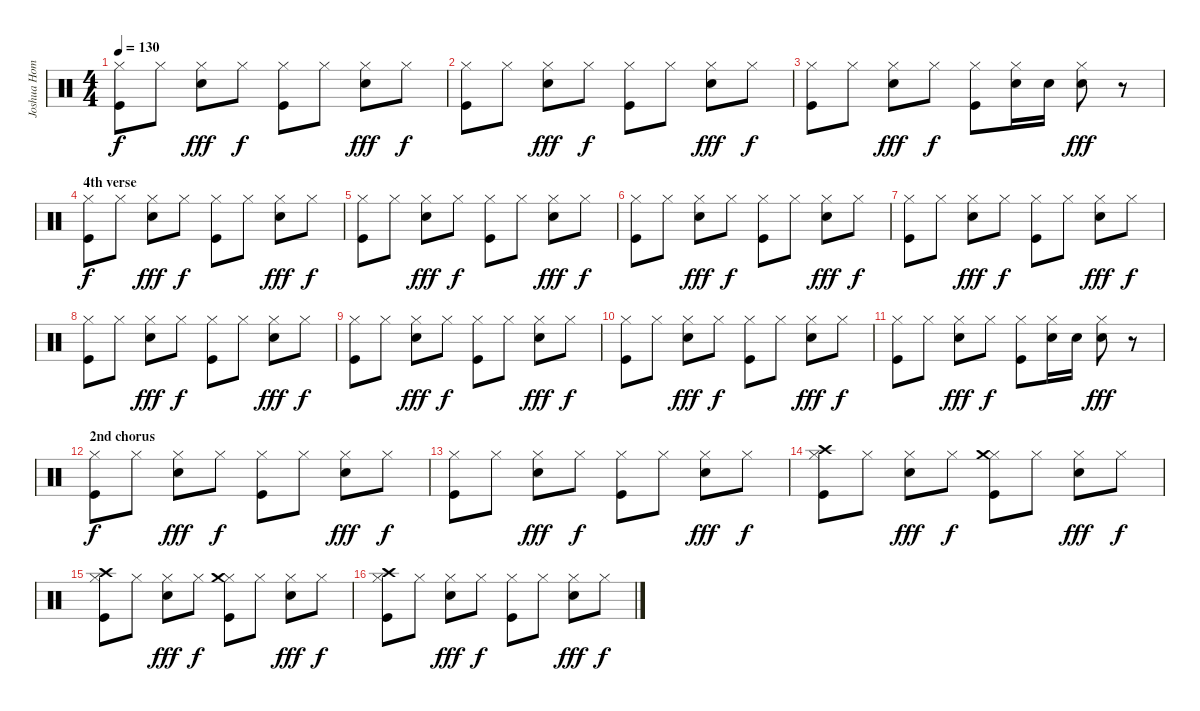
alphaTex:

\track ("Joshua Homme - drums" "Joshua Hom") {instrument percussion}
\staff {score}
\articulation defaults
\ts (4 4)
\tempo 130
\clef neutral
\ks c
("Hi-Hat (closed)" "Kick (hit)").8{dy f} "Hi-Hat (closed)".8 ("Hi-Hat (closed)" "Electric Snare (hit)").8{dy fff} "Hi-Hat (closed)".8{dy f} ("Hi-Hat (closed)" "Kick (hit)").8 "Hi-Hat (closed)".8 ("Hi-Hat (closed)" "Electric Snare (hit)").8{dy fff} "Hi-Hat (closed)".8{dy f} |
("Hi-Hat (closed)" "Kick (hit)").8 "Hi-Hat (closed)".8 ("Hi-Hat (closed)" "Electric Snare (hit)").8{dy fff} "Hi-Hat (closed)".8{dy f} ("Hi-Hat (closed)" "Kick (hit)").8 "Hi-Hat (closed)".8 ("Hi-Hat (closed)" "Electric Snare (hit)").8{dy fff} "Hi-Hat (closed)".8{dy f} |
("Hi-Hat (closed)" "Kick (hit)").8 "Hi-Hat (closed)".8 ("Hi-Hat (closed)" "Electric Snare (hit)").8{dy fff} "Hi-Hat (closed)".8{dy f} ("Hi-Hat (closed)" "Kick (hit)").8 ("Hi-Hat (closed)" "Electric Snare (hit)").16 "Electric Snare (hit)".16 ("Hi-Hat (closed)" "Electric Snare (hit)").8{dy fff} r.8 |
\section ("" "4th verse")
("Hi-Hat (closed)" "Kick (hit)").8{dy f} "Hi-Hat (closed)".8 ("Hi-Hat (closed)" "Electric Snare (hit)").8{dy fff} "Hi-Hat (closed)".8{dy f} ("Hi-Hat (closed)" "Kick (hit)").8 "Hi-Hat (closed)".8 ("Hi-Hat (closed)" "Electric Snare (hit)").8{dy fff} "Hi-Hat (closed)".8{dy f} |
("Hi-Hat (closed)" "Kick (hit)").8 "Hi-Hat (closed)".8 ("Hi-Hat (closed)" "Electric Snare (hit)").8{dy fff} "Hi-Hat (closed)".8{dy f} ("Hi-Hat (closed)" "Kick (hit)").8 "Hi-Hat (closed)".8 ("Hi-Hat (closed)" "Electric Snare (hit)").8{dy fff} "Hi-Hat (closed)".8{dy f} |
("Hi-Hat (closed)" "Kick (hit)").8 "Hi-Hat (closed)".8 ("Hi-Hat (closed)" "Electric Snare (hit)").8{dy fff} "Hi-Hat (closed)".8{dy f} ("Hi-Hat (closed)" "Kick (hit)").8 "Hi-Hat (closed)".8 ("Hi-Hat (closed)" "Electric Snare (hit)").8{dy fff} "Hi-Hat (closed)".8{dy f} |
("Hi-Hat (closed)" "Kick (hit)").8 "Hi-Hat (closed)".8 ("Hi-Hat (closed)" "Electric Snare (hit)").8{dy fff} "Hi-Hat (closed)".8{dy f} ("Hi-Hat (closed)" "Kick (hit)").8 "Hi-Hat (closed)".8 ("Hi-Hat (closed)" "Electric Snare (hit)").8{dy fff} "Hi-Hat (closed)".8{dy f} |
("Hi-Hat (closed)" "Kick (hit)").8 "Hi-Hat (closed)".8 ("Hi-Hat (closed)" "Electric Snare (hit)").8{dy fff} "Hi-Hat (closed)".8{dy f} ("Hi-Hat (closed)" "Kick (hit)").8 "Hi-Hat (closed)".8 ("Hi-Hat (closed)" "Electric Snare (hit)").8{dy fff} "Hi-Hat (closed)".8{dy f} |
("Hi-Hat (closed)" "Kick (hit)").8 "Hi-Hat (closed)".8 ("Hi-Hat (closed)" "Electric Snare (hit)").8{dy fff} "Hi-Hat (closed)".8{dy f} ("Hi-Hat (closed)" "Kick (hit)").8 "Hi-Hat (closed)".8 ("Hi-Hat (closed)" "Electric Snare (hit)").8{dy fff} "Hi-Hat (closed)".8{dy f} |
("Hi-Hat (closed)" "Kick (hit)").8 "Hi-Hat (closed)".8 ("Hi-Hat (closed)" "Electric Snare (hit)").8{dy fff} "Hi-Hat (closed)".8{dy f} ("Hi-Hat (closed)" "Kick (hit)").8 "Hi-Hat (closed)".8 ("Hi-Hat (closed)" "Electric Snare (hit)").8{dy fff} "Hi-Hat (closed)".8{dy f} |
("Hi-Hat (closed)" "Kick (hit)").8 "Hi-Hat (closed)".8 ("Hi-Hat (closed)" "Electric Snare (hit)").8{dy fff} "Hi-Hat (closed)".8{dy f} ("Hi-Hat (closed)" "Kick (hit)").8 ("Hi-Hat (closed)" "Electric Snare (hit)").16 "Electric Snare (hit)".16 ("Hi-Hat (closed)" "Electric Snare (hit)").8{dy fff} r.8 |
\section ("" "2nd chorus")
("Hi-Hat (closed)" "Kick (hit)").8{dy f} "Hi-Hat (closed)".8 ("Hi-Hat (closed)" "Electric Snare (hit)").8{dy fff} "Hi-Hat (closed)".8{dy f} ("Hi-Hat (closed)" "Kick (hit)").8 "Hi-Hat (closed)".8 ("Hi-Hat (closed)" "Electric Snare (hit)").8{dy fff} "Hi-Hat (closed)".8{dy f} |
("Hi-Hat (closed)" "Kick (hit)").8 "Hi-Hat (closed)".8 ("Hi-Hat (closed)" "Electric Snare (hit)").8{dy fff} "Hi-Hat (closed)".8{dy f} ("Hi-Hat (closed)" "Kick (hit)").8 "Hi-Hat (closed)".8 ("Hi-Hat (closed)" "Electric Snare (hit)").8{dy fff} "Hi-Hat (closed)".8{dy f} |
("Hi-Hat (closed)" "Kick (hit)" "Crash high (hit)").8 "Hi-Hat (closed)".8 ("Hi-Hat (closed)" "Electric Snare (hit)").8{dy fff} "Hi-Hat (closed)".8{dy f} ("Hi-Hat (closed)" "Kick (hit)" "Crash medium (hit)").8 "Hi-Hat (closed)".8 ("Hi-Hat (closed)" "Electric Snare (hit)").8{dy fff} "Hi-Hat (closed)".8{dy f} |
("Hi-Hat (closed)" "Kick (hit)" "Crash high (hit)").8 "Hi-Hat (closed)".8 ("Hi-Hat (closed)" "Electric Snare (hit)").8{dy fff} "Hi-Hat (closed)".8{dy f} ("Hi-Hat (closed)" "Kick (hit)" "Crash medium (hit)").8 "Hi-Hat (closed)".8 ("Hi-Hat (closed)" "Electric Snare (hit)").8{dy fff} "Hi-Hat (closed)".8{dy f} |
("Hi-Hat (closed)" "Kick (hit)" "Crash high (hit)").8 "Hi-Hat (closed)".8 ("Hi-Hat (closed)" "Electric Snare (hit)").8{dy fff} "Hi-Hat (closed)".8{dy f} ("Hi-Hat (closed)" "Kick (hit)").8 "Hi-Hat (closed)".8 ("Hi-Hat (closed)" "Electric Snare (hit)").8{dy fff} "Hi-Hat (closed)".8{dy f}
